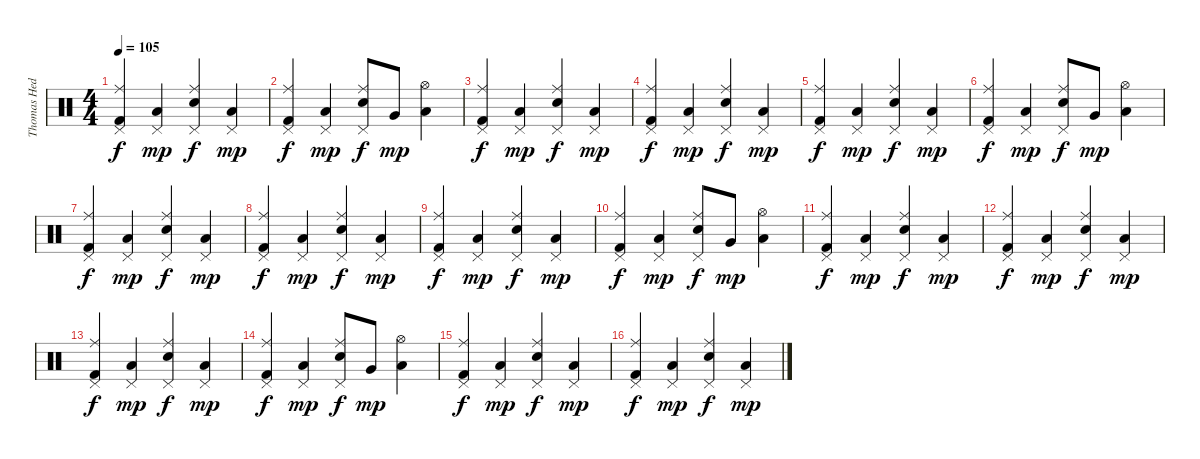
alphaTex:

\track ("Thomas Hedlund" "Thomas Hed") {instrument percussion}
\staff {score}
\articulation defaults
\ts (4 4)
\tempo 105
\clef neutral
\ks c
("Pedal Hi-Hat (hit)" "Ride (middle)" "Kick (hit) 2").4{dy f} ("Pedal Hi-Hat (hit)" "Low Floor Tom (hit)").4{dy mp} ("Pedal Hi-Hat (hit)" "Ride (middle)" "Snare (hit) 2").4{dy f} ("Pedal Hi-Hat (hit)" "Low Floor Tom (hit)").4{dy mp} |
("Pedal Hi-Hat (hit)" "Ride (middle)" "Kick (hit) 2").4{dy f} ("Pedal Hi-Hat (hit)" "Low Floor Tom (hit)").4{dy mp} ("Pedal Hi-Hat (hit)" "Ride (middle)" "Snare (hit) 2").8{dy f} "Very Low Tom (hit)".8{dy mp} ("Hi-Hat (open)" "Low Floor Tom (hit)").4 |
("Pedal Hi-Hat (hit)" "Ride (middle)" "Kick (hit) 2").4{dy f} ("Pedal Hi-Hat (hit)" "Low Floor Tom (hit)").4{dy mp} ("Pedal Hi-Hat (hit)" "Ride (middle)" "Snare (hit) 2").4{dy f} ("Pedal Hi-Hat (hit)" "Low Floor Tom (hit)").4{dy mp} |
("Pedal Hi-Hat (hit)" "Ride (middle)" "Kick (hit) 2").4{dy f} ("Pedal Hi-Hat (hit)" "Low Floor Tom (hit)").4{dy mp} ("Pedal Hi-Hat (hit)" "Ride (middle)" "Snare (hit) 2").4{dy f} ("Pedal Hi-Hat (hit)" "Low Floor Tom (hit)").4{dy mp} |
("Pedal Hi-Hat (hit)" "Ride (middle)" "Kick (hit) 2").4{dy f} ("Pedal Hi-Hat (hit)" "Low Floor Tom (hit)").4{dy mp} ("Pedal Hi-Hat (hit)" "Ride (middle)" "Snare (hit) 2").4{dy f} ("Pedal Hi-Hat (hit)" "Low Floor Tom (hit)").4{dy mp} |
("Pedal Hi-Hat (hit)" "Ride (middle)" "Kick (hit) 2").4{dy f} ("Pedal Hi-Hat (hit)" "Low Floor Tom (hit)").4{dy mp} ("Pedal Hi-Hat (hit)" "Ride (middle)" "Snare (hit) 2").8{dy f} "Very Low Tom (hit)".8{dy mp} ("Hi-Hat (open)" "Low Floor Tom (hit)").4 |
("Pedal Hi-Hat (hit)" "Ride (middle)" "Kick (hit) 2").4{dy f} ("Pedal Hi-Hat (hit)" "Low Floor Tom (hit)").4{dy mp} ("Pedal Hi-Hat (hit)" "Ride (middle)" "Snare (hit) 2").4{dy f} ("Pedal Hi-Hat (hit)" "Low Floor Tom (hit)").4{dy mp} |
("Pedal Hi-Hat (hit)" "Ride (middle)" "Kick (hit) 2").4{dy f} ("Pedal Hi-Hat (hit)" "Low Floor Tom (hit)").4{dy mp} ("Pedal Hi-Hat (hit)" "Ride (middle)" "Snare (hit) 2").4{dy f} ("Pedal Hi-Hat (hit)" "Low Floor Tom (hit)").4{dy mp} |
("Pedal Hi-Hat (hit)" "Ride (middle)" "Kick (hit) 2").4{dy f} ("Pedal Hi-Hat (hit)" "Low Floor Tom (hit)").4{dy mp} ("Pedal Hi-Hat (hit)" "Ride (middle)" "Snare (hit) 2").4{dy f} ("Pedal Hi-Hat (hit)" "Low Floor Tom (hit)").4{dy mp} |
("Pedal Hi-Hat (hit)" "Ride (middle)" "Kick (hit) 2").4{dy f} ("Pedal Hi-Hat (hit)" "Low Floor Tom (hit)").4{dy mp} ("Pedal Hi-Hat (hit)" "Ride (middle)" "Snare (hit) 2").8{dy f} "Very Low Tom (hit)".8{dy mp} ("Hi-Hat (open)" "Low Floor Tom (hit)").4 |
("Pedal Hi-Hat (hit)" "Ride (middle)" "Kick (hit) 2").4{dy f} ("Pedal Hi-Hat (hit)" "Low Floor Tom (hit)").4{dy mp} ("Pedal Hi-Hat (hit)" "Ride (middle)" "Snare (hit) 2").4{dy f} ("Pedal Hi-Hat (hit)" "Low Floor Tom (hit)").4{dy mp} |
("Pedal Hi-Hat (hit)" "Ride (middle)" "Kick (hit) 2").4{dy f} ("Pedal Hi-Hat (hit)" "Low Floor Tom (hit)").4{dy mp} ("Pedal Hi-Hat (hit)" "Ride (middle)" "Snare (hit) 2").4{dy f} ("Pedal Hi-Hat (hit)" "Low Floor Tom (hit)").4{dy mp} |
("Pedal Hi-Hat (hit)" "Ride (middle)" "Kick (hit) 2").4{dy f} ("Pedal Hi-Hat (hit)" "Low Floor Tom (hit)").4{dy mp} ("Pedal Hi-Hat (hit)" "Ride (middle)" "Snare (hit) 2").4{dy f} ("Pedal Hi-Hat (hit)" "Low Floor Tom (hit)").4{dy mp} |
("Pedal Hi-Hat (hit)" "Ride (middle)" "Kick (hit) 2").4{dy f} ("Pedal Hi-Hat (hit)" "Low Floor Tom (hit)").4{dy mp} ("Pedal Hi-Hat (hit)" "Ride (middle)" "Snare (hit) 2").8{dy f} "Very Low Tom (hit)".8{dy mp} ("Hi-Hat (open)" "Low Floor Tom (hit)").4 |
("Pedal Hi-Hat (hit)" "Ride (middle)" "Kick (hit) 2").4{dy f} ("Pedal Hi-Hat (hit)" "Low Floor Tom (hit)").4{dy mp} ("Pedal Hi-Hat (hit)" "Ride (middle)" "Snare (hit) 2").4{dy f} ("Pedal Hi-Hat (hit)" "Low Floor Tom (hit)").4{dy mp} |
("Pedal Hi-Hat (hit)" "Ride (middle)" "Kick (hit) 2").4{dy f} ("Pedal Hi-Hat (hit)" "Low Floor Tom (hit)").4{dy mp} ("Pedal Hi-Hat (hit)" "Ride (middle)" "Snare (hit) 2").4{dy f} ("Pedal Hi-Hat (hit)" "Low Floor Tom (hit)").4{dy mp}
